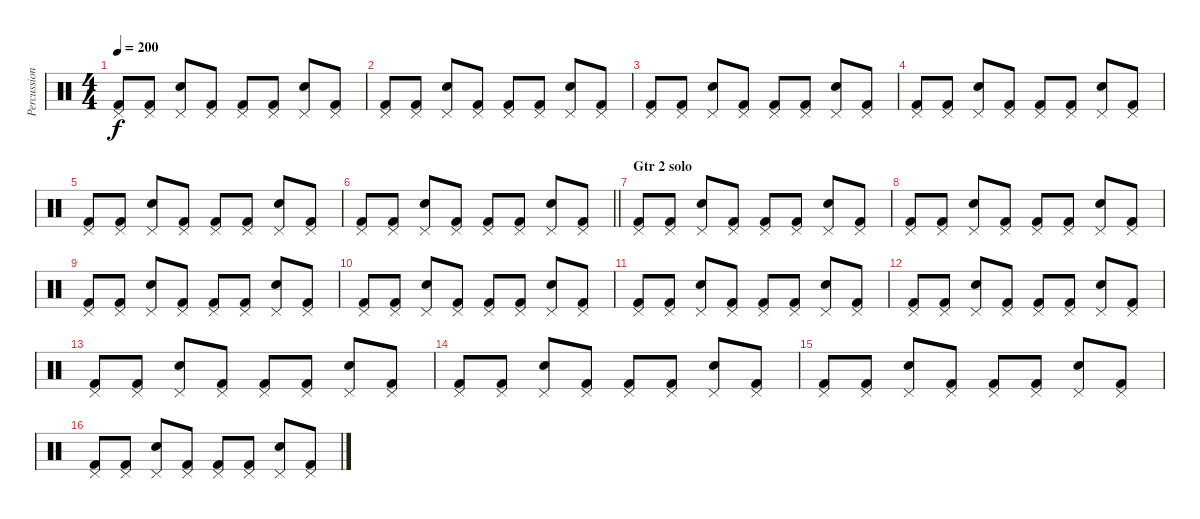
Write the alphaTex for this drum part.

\track ("Percussion" "Percussion") {instrument percussion}
\staff {score}
\articulation defaults
\ts (4 4)
\tempo 200
\clef neutral
\ks c
("Kick (hit) 2" "Pedal Hi-Hat (hit)").8{dy f} ("Kick (hit) 2" "Pedal Hi-Hat (hit)").8 ("Snare (hit) 2" "Pedal Hi-Hat (hit)").8 ("Kick (hit) 2" "Pedal Hi-Hat (hit)").8 ("Kick (hit) 2" "Pedal Hi-Hat (hit)").8 ("Kick (hit) 2" "Pedal Hi-Hat (hit)").8 ("Snare (hit) 2" "Pedal Hi-Hat (hit)").8 ("Kick (hit) 2" "Pedal Hi-Hat (hit)").8 |
("Kick (hit) 2" "Pedal Hi-Hat (hit)").8 ("Kick (hit) 2" "Pedal Hi-Hat (hit)").8 ("Snare (hit) 2" "Pedal Hi-Hat (hit)").8 ("Kick (hit) 2" "Pedal Hi-Hat (hit)").8 ("Kick (hit) 2" "Pedal Hi-Hat (hit)").8 ("Kick (hit) 2" "Pedal Hi-Hat (hit)").8 ("Snare (hit) 2" "Pedal Hi-Hat (hit)").8 ("Kick (hit) 2" "Pedal Hi-Hat (hit)").8 |
("Kick (hit) 2" "Pedal Hi-Hat (hit)").8 ("Kick (hit) 2" "Pedal Hi-Hat (hit)").8 ("Snare (hit) 2" "Pedal Hi-Hat (hit)").8 ("Kick (hit) 2" "Pedal Hi-Hat (hit)").8 ("Kick (hit) 2" "Pedal Hi-Hat (hit)").8 ("Kick (hit) 2" "Pedal Hi-Hat (hit)").8 ("Snare (hit) 2" "Pedal Hi-Hat (hit)").8 ("Kick (hit) 2" "Pedal Hi-Hat (hit)").8 |
("Kick (hit) 2" "Pedal Hi-Hat (hit)").8 ("Kick (hit) 2" "Pedal Hi-Hat (hit)").8 ("Snare (hit) 2" "Pedal Hi-Hat (hit)").8 ("Kick (hit) 2" "Pedal Hi-Hat (hit)").8 ("Kick (hit) 2" "Pedal Hi-Hat (hit)").8 ("Kick (hit) 2" "Pedal Hi-Hat (hit)").8 ("Snare (hit) 2" "Pedal Hi-Hat (hit)").8 ("Kick (hit) 2" "Pedal Hi-Hat (hit)").8 |
("Kick (hit) 2" "Pedal Hi-Hat (hit)").8 ("Kick (hit) 2" "Pedal Hi-Hat (hit)").8 ("Snare (hit) 2" "Pedal Hi-Hat (hit)").8 ("Kick (hit) 2" "Pedal Hi-Hat (hit)").8 ("Kick (hit) 2" "Pedal Hi-Hat (hit)").8 ("Kick (hit) 2" "Pedal Hi-Hat (hit)").8 ("Snare (hit) 2" "Pedal Hi-Hat (hit)").8 ("Kick (hit) 2" "Pedal Hi-Hat (hit)").8 |
\barLineRight lightlight
("Kick (hit) 2" "Pedal Hi-Hat (hit)").8 ("Kick (hit) 2" "Pedal Hi-Hat (hit)").8 ("Snare (hit) 2" "Pedal Hi-Hat (hit)").8 ("Kick (hit) 2" "Pedal Hi-Hat (hit)").8 ("Kick (hit) 2" "Pedal Hi-Hat (hit)").8 ("Kick (hit) 2" "Pedal Hi-Hat (hit)").8 ("Snare (hit) 2" "Pedal Hi-Hat (hit)").8 ("Kick (hit) 2" "Pedal Hi-Hat (hit)").8 |
\section ("" "Gtr 2 solo")
("Kick (hit) 2" "Pedal Hi-Hat (hit)").8 ("Kick (hit) 2" "Pedal Hi-Hat (hit)").8 ("Snare (hit) 2" "Pedal Hi-Hat (hit)").8 ("Kick (hit) 2" "Pedal Hi-Hat (hit)").8 ("Kick (hit) 2" "Pedal Hi-Hat (hit)").8 ("Kick (hit) 2" "Pedal Hi-Hat (hit)").8 ("Snare (hit) 2" "Pedal Hi-Hat (hit)").8 ("Kick (hit) 2" "Pedal Hi-Hat (hit)").8 |
("Kick (hit) 2" "Pedal Hi-Hat (hit)").8 ("Kick (hit) 2" "Pedal Hi-Hat (hit)").8 ("Snare (hit) 2" "Pedal Hi-Hat (hit)").8 ("Kick (hit) 2" "Pedal Hi-Hat (hit)").8 ("Kick (hit) 2" "Pedal Hi-Hat (hit)").8 ("Kick (hit) 2" "Pedal Hi-Hat (hit)").8 ("Snare (hit) 2" "Pedal Hi-Hat (hit)").8 ("Kick (hit) 2" "Pedal Hi-Hat (hit)").8 |
("Kick (hit) 2" "Pedal Hi-Hat (hit)").8 ("Kick (hit) 2" "Pedal Hi-Hat (hit)").8 ("Snare (hit) 2" "Pedal Hi-Hat (hit)").8 ("Kick (hit) 2" "Pedal Hi-Hat (hit)").8 ("Kick (hit) 2" "Pedal Hi-Hat (hit)").8 ("Kick (hit) 2" "Pedal Hi-Hat (hit)").8 ("Snare (hit) 2" "Pedal Hi-Hat (hit)").8 ("Kick (hit) 2" "Pedal Hi-Hat (hit)").8 |
("Kick (hit) 2" "Pedal Hi-Hat (hit)").8 ("Kick (hit) 2" "Pedal Hi-Hat (hit)").8 ("Snare (hit) 2" "Pedal Hi-Hat (hit)").8 ("Kick (hit) 2" "Pedal Hi-Hat (hit)").8 ("Kick (hit) 2" "Pedal Hi-Hat (hit)").8 ("Kick (hit) 2" "Pedal Hi-Hat (hit)").8 ("Snare (hit) 2" "Pedal Hi-Hat (hit)").8 ("Kick (hit) 2" "Pedal Hi-Hat (hit)").8 |
("Kick (hit) 2" "Pedal Hi-Hat (hit)").8 ("Kick (hit) 2" "Pedal Hi-Hat (hit)").8 ("Snare (hit) 2" "Pedal Hi-Hat (hit)").8 ("Kick (hit) 2" "Pedal Hi-Hat (hit)").8 ("Kick (hit) 2" "Pedal Hi-Hat (hit)").8 ("Kick (hit) 2" "Pedal Hi-Hat (hit)").8 ("Snare (hit) 2" "Pedal Hi-Hat (hit)").8 ("Kick (hit) 2" "Pedal Hi-Hat (hit)").8 |
("Kick (hit) 2" "Pedal Hi-Hat (hit)").8 ("Kick (hit) 2" "Pedal Hi-Hat (hit)").8 ("Snare (hit) 2" "Pedal Hi-Hat (hit)").8 ("Kick (hit) 2" "Pedal Hi-Hat (hit)").8 ("Kick (hit) 2" "Pedal Hi-Hat (hit)").8 ("Kick (hit) 2" "Pedal Hi-Hat (hit)").8 ("Snare (hit) 2" "Pedal Hi-Hat (hit)").8 ("Kick (hit) 2" "Pedal Hi-Hat (hit)").8 |
("Kick (hit) 2" "Pedal Hi-Hat (hit)").8 ("Kick (hit) 2" "Pedal Hi-Hat (hit)").8 ("Snare (hit) 2" "Pedal Hi-Hat (hit)").8 ("Kick (hit) 2" "Pedal Hi-Hat (hit)").8 ("Kick (hit) 2" "Pedal Hi-Hat (hit)").8 ("Kick (hit) 2" "Pedal Hi-Hat (hit)").8 ("Snare (hit) 2" "Pedal Hi-Hat (hit)").8 ("Kick (hit) 2" "Pedal Hi-Hat (hit)").8 |
("Kick (hit) 2" "Pedal Hi-Hat (hit)").8 ("Kick (hit) 2" "Pedal Hi-Hat (hit)").8 ("Snare (hit) 2" "Pedal Hi-Hat (hit)").8 ("Kick (hit) 2" "Pedal Hi-Hat (hit)").8 ("Kick (hit) 2" "Pedal Hi-Hat (hit)").8 ("Kick (hit) 2" "Pedal Hi-Hat (hit)").8 ("Snare (hit) 2" "Pedal Hi-Hat (hit)").8 ("Kick (hit) 2" "Pedal Hi-Hat (hit)").8 |
("Kick (hit) 2" "Pedal Hi-Hat (hit)").8 ("Kick (hit) 2" "Pedal Hi-Hat (hit)").8 ("Snare (hit) 2" "Pedal Hi-Hat (hit)").8 ("Kick (hit) 2" "Pedal Hi-Hat (hit)").8 ("Kick (hit) 2" "Pedal Hi-Hat (hit)").8 ("Kick (hit) 2" "Pedal Hi-Hat (hit)").8 ("Snare (hit) 2" "Pedal Hi-Hat (hit)").8 ("Kick (hit) 2" "Pedal Hi-Hat (hit)").8 |
("Kick (hit) 2" "Pedal Hi-Hat (hit)").8 ("Kick (hit) 2" "Pedal Hi-Hat (hit)").8 ("Snare (hit) 2" "Pedal Hi-Hat (hit)").8 ("Kick (hit) 2" "Pedal Hi-Hat (hit)").8 ("Kick (hit) 2" "Pedal Hi-Hat (hit)").8 ("Kick (hit) 2" "Pedal Hi-Hat (hit)").8 ("Snare (hit) 2" "Pedal Hi-Hat (hit)").8 ("Kick (hit) 2" "Pedal Hi-Hat (hit)").8
